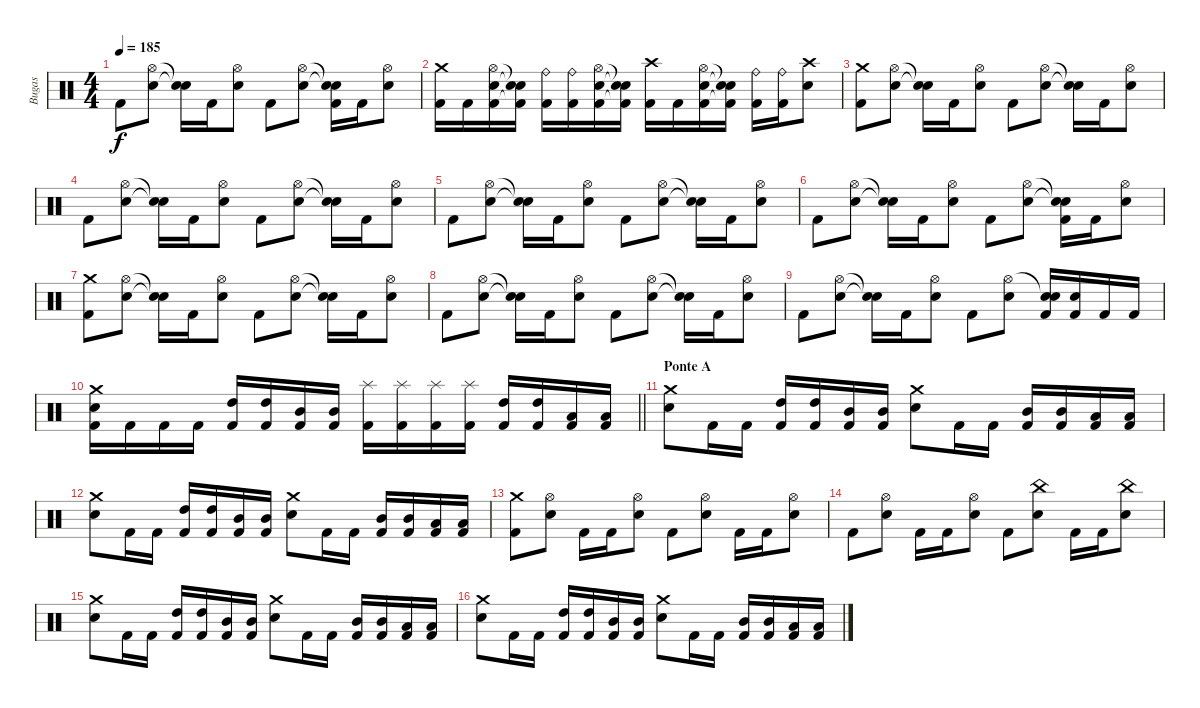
\track ("Bugas" "Bugas") {instrument percussion}
\staff {score}
\articulation defaults
\ts (4 4)
\tempo 185
\clef neutral
\ks c "Kick (hit) 2".8{dy f}
("Hi-Hat (open)" "Electric Snare (hit)").8 ("Snare (hit)"{t} "Snare (hit)"{t}).16 "Kick (hit) 2".16 ("Hi-Hat (open)" "Electric Snare (hit)").8 "Kick (hit) 2".8 ("Hi-Hat (open)" "Electric Snare (hit)").8 ("Snare (hit)"{t} "Snare (hit)"{t} "Kick (hit) 2").16 "Kick (hit) 2".16 ("Hi-Hat (open)" "Electric Snare (hit)").8 |
("Crash medium (hit)" "Kick (hit) 2").16 "Kick (hit) 2".16 ("Hi-Hat (open)" "Electric Snare (hit)" "Kick (hit) 2").16 ("Snare (hit)"{t} "Snare (hit)"{t} "Kick (hit) 2"{t}).16 ("Ride (bell)" "Kick (hit) 2").16 ("Ride (bell)" "Kick (hit) 2").16 ("Hi-Hat (open)" "Electric Snare (hit)" "Kick (hit) 2").16 ("Snare (hit)"{t} "Snare (hit)"{t} "Kick (hit) 2"{t}).16 ("Crash high (hit)" "Kick (hit) 2").16 "Kick (hit) 2".16 ("Hi-Hat (open)" "Electric Snare (hit)" "Kick (hit) 2").16 ("Snare (hit)"{t} "Snare (hit)"{t} "Kick (hit) 2"{t}).16 ("Ride (bell)" "Kick (hit) 2").16 ("Ride (bell)" "Kick (hit) 2").16 ("Crash high (hit)" "Electric Snare (hit)").8 |
("Crash medium (hit)" "Kick (hit) 2").8 ("Hi-Hat (open)" "Electric Snare (hit)").8 ("Snare (hit)"{t} "Snare (hit)"{t}).16 "Kick (hit) 2".16 ("Hi-Hat (open)" "Electric Snare (hit)").8 "Kick (hit) 2".8 ("Hi-Hat (open)" "Electric Snare (hit)").8 ("Snare (hit)"{t} "Snare (hit)"{t}).16 "Kick (hit) 2".16 ("Hi-Hat (open)" "Electric Snare (hit)").8 |
"Kick (hit) 2".8 ("Hi-Hat (open)" "Electric Snare (hit)").8 ("Snare (hit)"{t} "Snare (hit)"{t}).16 "Kick (hit) 2".16 ("Hi-Hat (open)" "Electric Snare (hit)").8 "Kick (hit) 2".8 ("Hi-Hat (open)" "Electric Snare (hit)").8 ("Snare (hit)"{t} "Snare (hit)"{t}).16 "Kick (hit) 2".16 ("Hi-Hat (open)" "Electric Snare (hit)").8 |
"Kick (hit) 2".8 ("Hi-Hat (open)" "Electric Snare (hit)").8 ("Snare (hit)"{t} "Snare (hit)"{t}).16 "Kick (hit) 2".16 ("Hi-Hat (open)" "Electric Snare (hit)").8 "Kick (hit) 2".8 ("Hi-Hat (open)" "Electric Snare (hit)").8 ("Snare (hit)"{t} "Snare (hit)"{t}).16 "Kick (hit) 2".16 ("Hi-Hat (open)" "Electric Snare (hit)").8 |
"Kick (hit) 2".8 ("Hi-Hat (open)" "Electric Snare (hit)").8 ("Snare (hit)"{t} "Snare (hit)"{t}).16 "Kick (hit) 2".16 ("Hi-Hat (open)" "Electric Snare (hit)").8 "Kick (hit) 2".8 ("Hi-Hat (open)" "Electric Snare (hit)").8 ("Snare (hit)"{t} "Snare (hit)"{t} "Kick (hit) 2").16 "Kick (hit) 2".16 ("Hi-Hat (open)" "Electric Snare (hit)").8 |
("Crash medium (hit)" "Kick (hit) 2").8 ("Hi-Hat (open)" "Electric Snare (hit)").8 ("Snare (hit)"{t} "Snare (hit)"{t}).16 "Kick (hit) 2".16 ("Hi-Hat (open)" "Electric Snare (hit)").8 "Kick (hit) 2".8 ("Hi-Hat (open)" "Electric Snare (hit)").8 ("Snare (hit)"{t} "Snare (hit)"{t}).16 "Kick (hit) 2".16 ("Hi-Hat (open)" "Electric Snare (hit)").8 |
"Kick (hit) 2".8 ("Hi-Hat (open)" "Electric Snare (hit)").8 ("Snare (hit)"{t} "Snare (hit)"{t}).16 "Kick (hit) 2".16 ("Hi-Hat (open)" "Electric Snare (hit)").8 "Kick (hit) 2".8 ("Hi-Hat (open)" "Electric Snare (hit)").8 ("Snare (hit)"{t} "Snare (hit)"{t}).16 "Kick (hit) 2".16 ("Hi-Hat (open)" "Electric Snare (hit)").8 |
"Kick (hit) 2".8 ("Hi-Hat (open)" "Electric Snare (hit)").8 ("Snare (hit)"{t} "Snare (hit)"{t}).16 "Kick (hit) 2".16 ("Hi-Hat (open)" "Electric Snare (hit)").8 "Kick (hit) 2".8 ("Hi-Hat (open)" "Electric Snare (hit)").8 ("Snare (hit)"{t} "Electric Snare (hit)" "Kick (hit) 2").16 ("Electric Snare (hit)" "Kick (hit) 2").16 "Kick (hit) 2".16 "Kick (hit) 2".16 |
\barLineRight lightlight
("Crash medium (hit)" "Electric Snare (hit)" "Kick (hit) 2").16 "Kick (hit) 2".16 "Kick (hit) 2".16 "Kick (hit) 2".16 ("High Tom (hit)" "Kick (hit) 2").16 ("High Tom (hit)" "Kick (hit) 2").16 ("Mid Tom (hit)" "Kick (hit) 2").16 ("Mid Tom (hit)" "Kick (hit) 2").16 ("Splash (hit)" "Kick (hit) 2").16 ("Splash (hit)" "Kick (hit) 2").16 ("Splash (hit)" "Kick (hit) 2").16 ("Splash (hit)" "Kick (hit) 2").16 ("High Tom (hit)" "Kick (hit) 2").16 ("High Tom (hit)" "Kick (hit) 2").16 ("Low Tom (hit)" "Kick (hit) 2").16 ("Low Tom (hit)" "Kick (hit) 2").16 |
\section ("" "Ponte A")
("Crash medium (hit)" "Electric Snare (hit)").8 "Kick (hit) 2".16 "Kick (hit) 2".16 ("High Tom (hit)" "Kick (hit) 2").16 ("High Tom (hit)" "Kick (hit) 2").16 ("Mid Tom (hit)" "Kick (hit) 2").16 ("Mid Tom (hit)" "Kick (hit) 2").16 ("Crash medium (hit)" "Electric Snare (hit)").8 "Kick (hit) 2".16 "Kick (hit) 2".16 ("Mid Tom (hit)" "Kick (hit) 2").16 ("Mid Tom (hit)" "Kick (hit) 2").16 ("Low Tom (hit)" "Kick (hit) 2").16 ("Low Tom (hit)" "Kick (hit) 2").16 |
("Crash medium (hit)" "Electric Snare (hit)").8 "Kick (hit) 2".16 "Kick (hit) 2".16 ("High Tom (hit)" "Kick (hit) 2").16 ("High Tom (hit)" "Kick (hit) 2").16 ("Mid Tom (hit)" "Kick (hit) 2").16 ("Mid Tom (hit)" "Kick (hit) 2").16 ("Crash medium (hit)" "Electric Snare (hit)").8 "Kick (hit) 2".16 "Kick (hit) 2".16 ("Mid Tom (hit)" "Kick (hit) 2").16 ("Mid Tom (hit)" "Kick (hit) 2").16 ("Low Tom (hit)" "Kick (hit) 2").16 ("Low Tom (hit)" "Kick (hit) 2").16 |
("Crash medium (hit)" "Kick (hit) 2").8 ("Hi-Hat (open)" "Electric Snare (hit)").8 "Kick (hit) 2".16 "Kick (hit) 2".16 ("Hi-Hat (open)" "Electric Snare (hit)").8 "Kick (hit) 2".8 ("Hi-Hat (open)" "Electric Snare (hit)").8 "Kick (hit) 2".16 "Kick (hit) 2".16 ("Hi-Hat (open)" "Electric Snare (hit)").8 |
"Kick (hit) 2".8 ("Hi-Hat (open)" "Electric Snare (hit)").8 "Kick (hit) 2".16 "Kick (hit) 2".16 ("Hi-Hat (open)" "Electric Snare (hit)").8 "Kick (hit) 2".8 ("China (hit)" "Electric Snare (hit)").8 "Kick (hit) 2".16 "Kick (hit) 2".16 ("China (hit)" "Electric Snare (hit)").8 |
("Crash medium (hit)" "Electric Snare (hit)").8 "Kick (hit) 2".16 "Kick (hit) 2".16 ("High Tom (hit)" "Kick (hit) 2").16 ("High Tom (hit)" "Kick (hit) 2").16 ("Mid Tom (hit)" "Kick (hit) 2").16 ("Mid Tom (hit)" "Kick (hit) 2").16 ("Crash medium (hit)" "Electric Snare (hit)").8 "Kick (hit) 2".16 "Kick (hit) 2".16 ("Mid Tom (hit)" "Kick (hit) 2").16 ("Mid Tom (hit)" "Kick (hit) 2").16 ("Low Tom (hit)" "Kick (hit) 2").16 ("Low Tom (hit)" "Kick (hit) 2").16 |
("Crash medium (hit)" "Electric Snare (hit)").8 "Kick (hit) 2".16 "Kick (hit) 2".16 ("High Tom (hit)" "Kick (hit) 2").16 ("High Tom (hit)" "Kick (hit) 2").16 ("Mid Tom (hit)" "Kick (hit) 2").16 ("Mid Tom (hit)" "Kick (hit) 2").16 ("Crash medium (hit)" "Electric Snare (hit)").8 "Kick (hit) 2".16 "Kick (hit) 2".16 ("Mid Tom (hit)" "Kick (hit) 2").16 ("Mid Tom (hit)" "Kick (hit) 2").16 ("Low Tom (hit)" "Kick (hit) 2").16 ("Low Tom (hit)" "Kick (hit) 2").16
